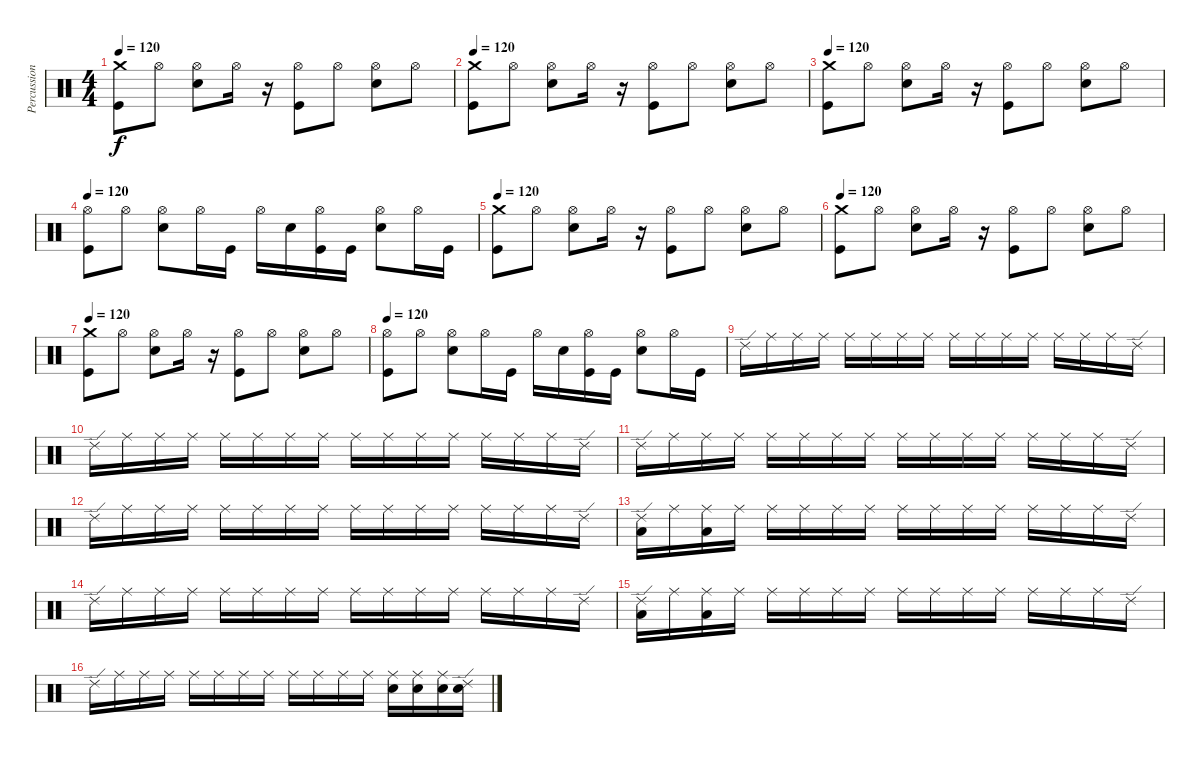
\track ("Percussion" "Percussion") {instrument percussion}
\staff {score}
\articulation defaults
\ts (4 4)
\tempo 120
\clef neutral
\ks c
("Kick (hit)" "Crash medium (hit)").8{dy f} "Hi-Hat (open)".8 ("Hi-Hat (open)" "Electric Snare (hit)").8 "Hi-Hat (open)".16 r.16 ("Kick (hit)" "Hi-Hat (open)").8 "Hi-Hat (open)".8 ("Hi-Hat (open)" "Electric Snare (hit)").8 "Hi-Hat (open)".8 |
\tempo 120
("Kick (hit)" "Crash medium (hit)").8 "Hi-Hat (open)".8 ("Hi-Hat (open)" "Electric Snare (hit)").8 "Hi-Hat (open)".16 r.16 ("Kick (hit)" "Hi-Hat (open)").8 "Hi-Hat (open)".8 ("Hi-Hat (open)" "Electric Snare (hit)").8 "Hi-Hat (open)".8 |
\tempo 120
("Kick (hit)" "Crash medium (hit)").8 "Hi-Hat (open)".8 ("Hi-Hat (open)" "Electric Snare (hit)").8 "Hi-Hat (open)".16 r.16 ("Kick (hit)" "Hi-Hat (open)").8 "Hi-Hat (open)".8 ("Hi-Hat (open)" "Electric Snare (hit)").8 "Hi-Hat (open)".8 |
\tempo 120
("Kick (hit)" "Hi-Hat (open)").8 "Hi-Hat (open)".8 ("Hi-Hat (open)" "Electric Snare (hit)").8 "Hi-Hat (open)".16 "Kick (hit)".16 "Hi-Hat (open)".16 "Electric Snare (hit)".16 ("Kick (hit)" "Hi-Hat (open)").16 "Kick (hit)".16 ("Hi-Hat (open)" "Electric Snare (hit)").8 "Hi-Hat (open)".16 "Kick (hit)".16 |
\tempo 120
("Kick (hit)" "Crash medium (hit)").8 "Hi-Hat (open)".8 ("Hi-Hat (open)" "Electric Snare (hit)").8 "Hi-Hat (open)".16 r.16 ("Kick (hit)" "Hi-Hat (open)").8 "Hi-Hat (open)".8 ("Hi-Hat (open)" "Electric Snare (hit)").8 "Hi-Hat (open)".8 |
\tempo 120
("Kick (hit)" "Crash medium (hit)").8 "Hi-Hat (open)".8 ("Hi-Hat (open)" "Electric Snare (hit)").8 "Hi-Hat (open)".16 r.16 ("Kick (hit)" "Hi-Hat (open)").8 "Hi-Hat (open)".8 ("Hi-Hat (open)" "Electric Snare (hit)").8 "Hi-Hat (open)".8 |
\tempo 120
("Kick (hit)" "Crash medium (hit)").8 "Hi-Hat (open)".8 ("Hi-Hat (open)" "Electric Snare (hit)").8 "Hi-Hat (open)".16 r.16 ("Kick (hit)" "Hi-Hat (open)").8 "Hi-Hat (open)".8 ("Hi-Hat (open)" "Electric Snare (hit)").8 "Hi-Hat (open)".8 |
\tempo 120
("Kick (hit)" "Hi-Hat (open)").8 "Hi-Hat (open)".8 ("Hi-Hat (open)" "Electric Snare (hit)").8 "Hi-Hat (open)".16 "Kick (hit)".16 "Hi-Hat (open)".16 "Electric Snare (hit)".16 ("Kick (hit)" "Hi-Hat (open)").16 "Kick (hit)".16 ("Hi-Hat (open)" "Electric Snare (hit)").8 "Hi-Hat (open)".16 "Kick (hit)".16 |
"Ride (edge) 2".16 "Ride (middle)".16 "Ride (middle)".16 "Ride (middle)".16 "Ride (middle)".16 "Ride (middle)".16 "Ride (middle)".16 "Ride (middle)".16 "Ride (middle)".16 "Ride (middle)".16 "Ride (middle)".16 "Ride (middle)".16 "Ride (middle)".16 "Ride (middle)".16 "Ride (middle)".16 "Ride (edge) 2".16 |
"Ride (edge) 2".16 "Ride (middle)".16 "Ride (middle)".16 "Ride (middle)".16 "Ride (middle)".16 "Ride (middle)".16 "Ride (middle)".16 "Ride (middle)".16 "Ride (middle)".16 "Ride (middle)".16 "Ride (middle)".16 "Ride (middle)".16 "Ride (middle)".16 "Ride (middle)".16 "Ride (middle)".16 "Ride (edge) 2".16 |
"Ride (edge) 2".16 "Ride (middle)".16 "Ride (middle)".16 "Ride (middle)".16 "Ride (middle)".16 "Ride (middle)".16 "Ride (middle)".16 "Ride (middle)".16 "Ride (middle)".16 "Ride (middle)".16 "Ride (middle)".16 "Ride (middle)".16 "Ride (middle)".16 "Ride (middle)".16 "Ride (middle)".16 "Ride (edge) 2".16 |
"Ride (edge) 2".16 "Ride (middle)".16 "Ride (middle)".16 "Ride (middle)".16 "Ride (middle)".16 "Ride (middle)".16 "Ride (middle)".16 "Ride (middle)".16 "Ride (middle)".16 "Ride (middle)".16 "Ride (middle)".16 "Ride (middle)".16 "Ride (middle)".16 "Ride (middle)".16 "Ride (middle)".16 "Ride (edge) 2".16 |
("Low Floor Tom (hit)" "Ride (edge) 2").16 "Ride (middle)".16 ("Low Floor Tom (hit)" "Ride (middle)").16 "Ride (middle)".16 "Ride (middle)".16 "Ride (middle)".16 "Ride (middle)".16 "Ride (middle)".16 "Ride (middle)".16 "Ride (middle)".16 "Ride (middle)".16 "Ride (middle)".16 "Ride (middle)".16 "Ride (middle)".16 "Ride (middle)".16 "Ride (edge) 2".16 |
"Ride (edge) 2".16 "Ride (middle)".16 "Ride (middle)".16 "Ride (middle)".16 "Ride (middle)".16 "Ride (middle)".16 "Ride (middle)".16 "Ride (middle)".16 "Ride (middle)".16 "Ride (middle)".16 "Ride (middle)".16 "Ride (middle)".16 "Ride (middle)".16 "Ride (middle)".16 "Ride (middle)".16 "Ride (edge) 2".16 |
("Low Floor Tom (hit)" "Ride (edge) 2").16 "Ride (middle)".16 ("Low Floor Tom (hit)" "Ride (middle)").16 "Ride (middle)".16 "Ride (middle)".16 "Ride (middle)".16 "Ride (middle)".16 "Ride (middle)".16 "Ride (middle)".16 "Ride (middle)".16 "Ride (middle)".16 "Ride (middle)".16 "Ride (middle)".16 "Ride (middle)".16 "Ride (middle)".16 "Ride (edge) 2".16 |
"Ride (edge) 2".16 "Ride (middle)".16 "Ride (middle)".16 "Ride (middle)".16 "Ride (middle)".16 "Ride (middle)".16 "Ride (middle)".16 "Ride (middle)".16 "Ride (middle)".16 "Ride (middle)".16 "Ride (middle)".16 "Ride (middle)".16 ("Electric Snare (hit)" "Ride (middle)").16 ("Electric Snare (hit)" "Ride (middle)").16 ("Electric Snare (hit)" "Ride (middle)").16 ("Electric Snare (hit)" "Ride (edge) 2").16
